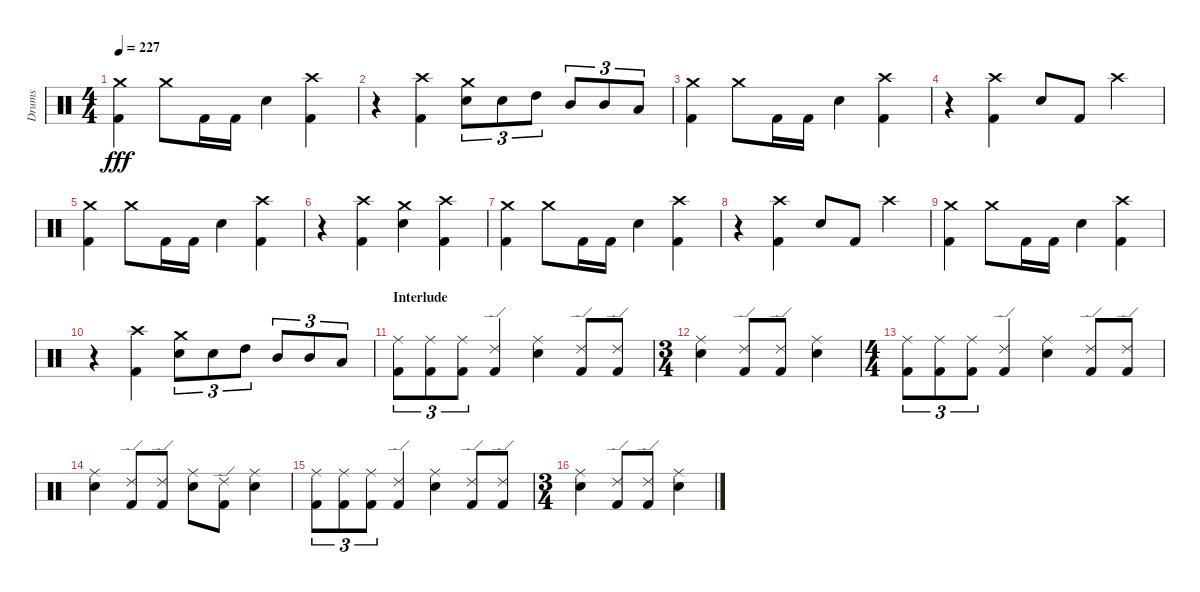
\track ("Drums" "Drums") {instrument percussion}
\staff {score}
\articulation defaults
\ts (4 4)
\tempo 227
\clef neutral
\ks c
("Kick (hit) 2" "Crash medium (hit)").4{dy fff} "Crash medium (hit)".8 "Kick (hit) 2".16 "Kick (hit) 2".16 "Electric Snare (hit)".4 ("Kick (hit) 2" "Crash high (hit)").4 |
r.4 ("Kick (hit) 2" "Crash high (hit)").4 ("Electric Snare (hit)" "Crash medium (hit)").8{tu (3 2)} "Electric Snare (hit)".8{tu (3 2)} "High Tom (hit)".8{tu (3 2)} "Mid Tom (hit)".8{tu (3 2)} "Mid Tom (hit)".8{tu (3 2)} "Low Tom (hit)".8{tu (3 2)} |
("Kick (hit) 2" "Crash medium (hit)").4 "Crash medium (hit)".8 "Kick (hit) 2".16 "Kick (hit) 2".16 "Electric Snare (hit)".4 ("Kick (hit) 2" "Crash high (hit)").4 |
r.4 ("Kick (hit) 2" "Crash high (hit)").4 "Electric Snare (hit)".8 "Kick (hit) 2".8 "Crash high (hit)".4 |
("Kick (hit) 2" "Crash medium (hit)").4 "Crash medium (hit)".8 "Kick (hit) 2".16 "Kick (hit) 2".16 "Electric Snare (hit)".4 ("Kick (hit) 2" "Crash high (hit)").4 |
r.4 ("Kick (hit) 2" "Crash high (hit)").4 ("Electric Snare (hit)" "Crash medium (hit)").4 ("Kick (hit) 2" "Crash high (hit)").4 |
("Kick (hit) 2" "Crash medium (hit)").4 "Crash medium (hit)".8 "Kick (hit) 2".16 "Kick (hit) 2".16 "Electric Snare (hit)".4 ("Kick (hit) 2" "Crash high (hit)").4 |
r.4 ("Kick (hit) 2" "Crash high (hit)").4 "Electric Snare (hit)".8 "Kick (hit) 2".8 "Crash high (hit)".4 |
("Kick (hit) 2" "Crash medium (hit)").4 "Crash medium (hit)".8 "Kick (hit) 2".16 "Kick (hit) 2".16 "Electric Snare (hit)".4 ("Kick (hit) 2" "Crash high (hit)").4 |
r.4 ("Kick (hit) 2" "Crash high (hit)").4 ("Electric Snare (hit)" "Crash medium (hit)").8{tu (3 2)} "Electric Snare (hit)".8{tu (3 2)} "High Tom (hit)".8{tu (3 2)} "Mid Tom (hit)".8{tu (3 2)} "Mid Tom (hit)".8{tu (3 2)} "Low Tom (hit)".8{tu (3 2)} |
\section ("" "Interlude")
("Kick (hit) 2" "Ride (middle)").8{tu (3 2)} ("Kick (hit) 2" "Ride (middle)").8{tu (3 2)} ("Kick (hit) 2" "Ride (middle)").8{tu (3 2)} ("Kick (hit) 2" "Ride (edge) 2").4 ("Electric Snare (hit)" "Ride (middle)").4 ("Kick (hit) 2" "Ride (edge) 2").8 ("Kick (hit) 2" "Ride (edge) 2").8 |
\ts (3 4)
("Electric Snare (hit)" "Ride (middle)").4 ("Kick (hit) 2" "Ride (edge) 2").8 ("Kick (hit) 2" "Ride (edge) 2").8 ("Electric Snare (hit)" "Ride (middle)").4 |
\ts (4 4)
("Kick (hit) 2" "Ride (middle)").8{tu (3 2)} ("Kick (hit) 2" "Ride (middle)").8{tu (3 2)} ("Kick (hit) 2" "Ride (middle)").8{tu (3 2)} ("Kick (hit) 2" "Ride (edge) 2").4 ("Electric Snare (hit)" "Ride (middle)").4 ("Kick (hit) 2" "Ride (edge) 2").8 ("Kick (hit) 2" "Ride (edge) 2").8 |
("Electric Snare (hit)" "Ride (middle)").4 ("Kick (hit) 2" "Ride (edge) 2").8 ("Kick (hit) 2" "Ride (edge) 2").8 ("Electric Snare (hit)" "Ride (middle)").8 ("Kick (hit) 2" "Ride (edge) 2").8 ("Electric Snare (hit)" "Ride (middle)").4 |
("Kick (hit) 2" "Ride (middle)").8{tu (3 2)} ("Kick (hit) 2" "Ride (middle)").8{tu (3 2)} ("Kick (hit) 2" "Ride (middle)").8{tu (3 2)} ("Kick (hit) 2" "Ride (edge) 2").4 ("Electric Snare (hit)" "Ride (middle)").4 ("Kick (hit) 2" "Ride (edge) 2").8 ("Kick (hit) 2" "Ride (edge) 2").8 |
\ts (3 4)
("Electric Snare (hit)" "Ride (middle)").4 ("Kick (hit) 2" "Ride (edge) 2").8 ("Kick (hit) 2" "Ride (edge) 2").8 ("Electric Snare (hit)" "Ride (middle)").4
